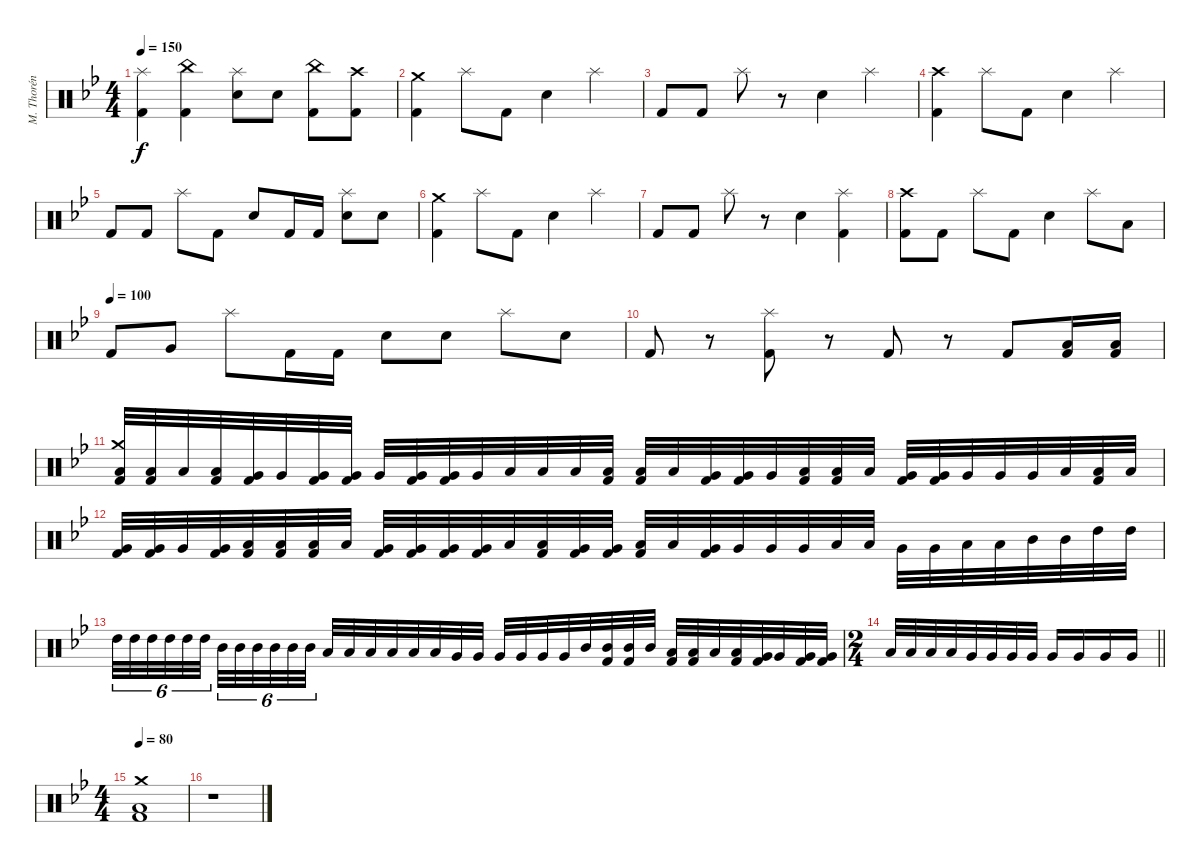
\track ("M. Thorén (Drums)" "M. Thorén ") {instrument percussion}
\staff {score}
\articulation defaults
\ts (4 4)
\tempo 150
\clef neutral
\ks gminor
("Splash (hit)" "Kick (hit) 2").4{dy f} ("China (hit)" "Kick (hit) 2").4 ("Splash (hit)" "Electric Snare (hit)").8 "Electric Snare (hit)".8 ("China (hit)" "Kick (hit) 2").8 ("Crash high (hit)" "Kick (hit) 2").8 |
("Crash medium (hit)" "Kick (hit) 2").4 "Splash (hit)".8 "Kick (hit) 2".8 "Electric Snare (hit)".4 "Splash (hit)".4 |
"Kick (hit) 2".8 "Kick (hit) 2".8 "Splash (hit)".8 r.8 "Electric Snare (hit)".4 "Splash (hit)".4 |
("Crash high (hit)" "Kick (hit) 2").4 "Splash (hit)".8 "Kick (hit) 2".8 "Electric Snare (hit)".4 "Splash (hit)".4 |
"Kick (hit) 2".8 "Kick (hit) 2".8 "Splash (hit)".8 "Kick (hit) 2".8 "Electric Snare (hit)".8 "Kick (hit) 2".16 "Kick (hit) 2".16 ("Splash (hit)" "Electric Snare (hit)").8 "Electric Snare (hit)".8 |
("Crash medium (hit)" "Kick (hit) 2").4 "Splash (hit)".8 "Kick (hit) 2".8 "Electric Snare (hit)".4 "Splash (hit)".4 |
"Kick (hit) 2".8 "Kick (hit) 2".8 "Splash (hit)".8 r.8 "Electric Snare (hit)".4 ("Splash (hit)" "Kick (hit) 2").4 |
("Crash high (hit)" "Kick (hit) 2").8 "Kick (hit) 2".8 "Splash (hit)".8 "Kick (hit) 2".8 "Electric Snare (hit)".4 "Splash (hit)".8 "Low Tom (hit)".8 |
\tempo (100)
"Kick (hit) 2".8 "Very Low Tom (hit)".8 "Splash (hit)".8 "Kick (hit) 2".16 "Kick (hit) 2".16 "Electric Snare (hit)".8 "Electric Snare (hit)".8 "Splash (hit)".8 "Electric Snare (hit)".8 |
"Kick (hit) 2".8 r.8 ("Splash (hit)" "Kick (hit) 2").8 r.8 "Kick (hit) 2".8 r.8 "Kick (hit) 2".8 ("Low Tom (hit)" "Kick (hit) 2").16 ("Low Tom (hit)" "Kick (hit) 2").16 |
("Crash medium (hit)" "Low Tom (hit)" "Kick (hit) 2").32 ("Low Tom (hit)" "Kick (hit) 2").32 "Low Tom (hit)".32 ("Low Tom (hit)" "Kick (hit) 2").32 ("Very Low Tom (hit)" "Kick (hit) 2").32 "Very Low Tom (hit)".32 ("Very Low Tom (hit)" "Kick (hit) 2").32 ("Very Low Tom (hit)" "Kick (hit) 2").32 "Very Low Tom (hit)".32 ("Very Low Tom (hit)" "Kick (hit) 2").32 ("Very Low Tom (hit)" "Kick (hit) 2").32 "Very Low Tom (hit)".32 "Low Floor Tom (hit)".32 "Low Floor Tom (hit)".32 "Low Floor Tom (hit)".32 ("Low Floor Tom (hit)" "Kick (hit) 2").32 ("Low Floor Tom (hit)" "Kick (hit) 2").32 "Low Floor Tom (hit)".32 ("Very Low Tom (hit)" "Kick (hit) 2").32 ("Very Low Tom (hit)" "Kick (hit) 2").32 "Very Low Tom (hit)".32 ("Low Floor Tom (hit)" "Kick (hit) 2").32 ("Low Floor Tom (hit)" "Kick (hit) 2").32 "Low Floor Tom (hit)".32 ("Very Low Tom (hit)" "Kick (hit) 2").32 ("Very Low Tom (hit)" "Kick (hit) 2").32 "Very Low Tom (hit)".32 "Very Low Tom (hit)".32 "Very Low Tom (hit)".32 "Low Floor Tom (hit)".32 ("Low Floor Tom (hit)" "Kick (hit) 2").32 "Low Floor Tom (hit)".32 |
("Very Low Tom (hit)" "Kick (hit) 2").32 ("Very Low Tom (hit)" "Kick (hit) 2").32 "Very Low Tom (hit)".32 ("Very Low Tom (hit)" "Kick (hit) 2").32 ("Low Tom (hit)" "Kick (hit) 2").32 ("Low Tom (hit)" "Kick (hit) 2").32 ("Low Tom (hit)" "Kick (hit) 2").32 "Low Tom (hit)".32 ("Very Low Tom (hit)" "Kick (hit) 2").32 ("Very Low Tom (hit)" "Kick (hit) 2").32 ("Very Low Tom (hit)" "Kick (hit) 2").32 ("Very Low Tom (hit)" "Kick (hit) 2").32 "Low Tom (hit)".32 ("Low Tom (hit)" "Kick (hit) 2").32 ("Very Low Tom (hit)" "Kick (hit) 2").32 ("Very Low Tom (hit)" "Kick (hit) 2").32 ("Low Floor Tom (hit)" "Kick (hit) 2").32 "Low Floor Tom (hit)".32 ("Very Low Tom (hit)" "Kick (hit) 2").32 "Very Low Tom (hit)".32 "Very Low Tom (hit)".32 "Very Low Tom (hit)".32 "Low Floor Tom (hit)".32 "Low Floor Tom (hit)".32 "Very Low Tom (hit)".32 "Very Low Tom (hit)".32 "Low Tom (hit)".32 "Low Tom (hit)".32 "Mid Tom (hit)".32 "Mid Tom (hit)".32 "High Tom (hit)".32 "High Tom (hit)".32 |
"High Tom (hit)".32{tu (6 4)} "High Tom (hit)".32{tu (6 4)} "High Tom (hit)".32{tu (6 4)} "High Tom (hit)".32{tu (6 4)} "High Tom (hit)".32{tu (6 4)} "High Tom (hit)".32{tu (6 4) beam splitsecondary} "Mid Tom (hit)".32{tu (6 4)} "Mid Tom (hit)".32{tu (6 4)} "Mid Tom (hit)".32{tu (6 4)} "Mid Tom (hit)".32{tu (6 4)} "Mid Tom (hit)".32{tu (6 4)} "Mid Tom (hit)".32{tu (6 4)} "Low Tom (hit)".32 "Low Tom (hit)".32 "Low Tom (hit)".32 "Low Tom (hit)".32 "Low Tom (hit)".32 "Low Tom (hit)".32 "Very Low Tom (hit)".32 "Very Low Tom (hit)".32 "Very Low Tom (hit)".32 "Very Low Tom (hit)".32 "Very Low Tom (hit)".32 "Very Low Tom (hit)".32 "Mid Tom (hit)".32 ("Mid Tom (hit)" "Kick (hit) 2").32 ("Mid Tom (hit)" "Kick (hit) 2").32 "Mid Tom (hit)".32 ("Low Tom (hit)" "Kick (hit) 2").32 ("Low Tom (hit)" "Kick (hit) 2").32 "Low Tom (hit)".32 ("Low Tom (hit)" "Kick (hit) 2").32 ("Very Low Tom (hit)" "Kick (hit) 2").32 "Very Low Tom (hit)".32 ("Very Low Tom (hit)" "Kick (hit) 2").32 ("Very Low Tom (hit)" "Kick (hit) 2").32 |
\ts (2 4)
\barLineRight lightlight "Low Tom (hit)".32 "Low Tom (hit)".32 "Low Tom (hit)".32 "Low Tom (hit)".32 "Very Low Tom (hit)".32 "Very Low Tom (hit)".32 "Very Low Tom (hit)".32 "Very Low Tom (hit)".32 "Very Low Tom (hit)".16 "Very Low Tom (hit)".16 "Very Low Tom (hit)".16 "Very Low Tom (hit)".16
|
\ts (4 4)
\tempo 80
("Crash medium (hit)" "Low Floor Tom (hit)" "Kick (hit) 2").1 |
r.1
